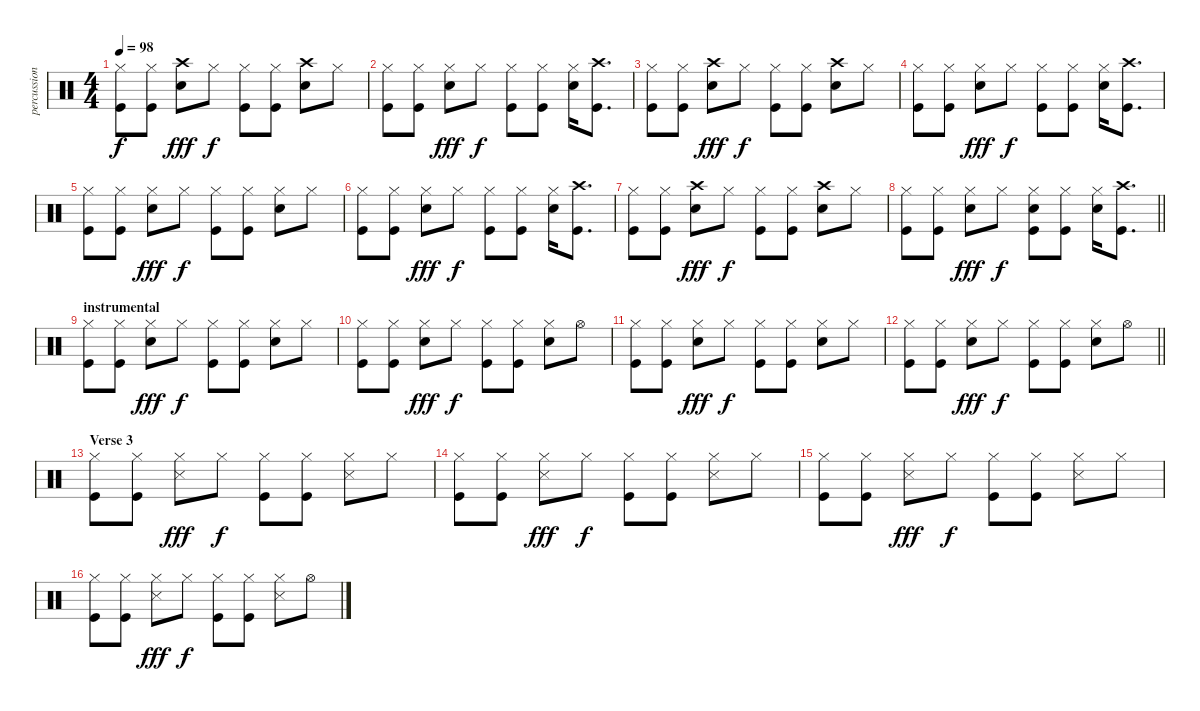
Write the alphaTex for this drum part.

\track ("percussion" "percussion") {instrument percussion}
\staff {score}
\articulation defaults
\ts (4 4)
\tempo 98
\clef neutral
\ks c
("Hi-Hat (closed)" "Kick (hit)").8{dy f} ("Hi-Hat (closed)" "Kick (hit)").8 ("Crash high (hit)" "Electric Snare (hit)").8{dy fff} "Hi-Hat (closed)".8{dy f} ("Hi-Hat (closed)" "Kick (hit)").8 ("Hi-Hat (closed)" "Kick (hit)").8 ("Crash high (hit)" "Electric Snare (hit)").8 "Hi-Hat (closed)".8 |
("Hi-Hat (closed)" "Kick (hit)").8 ("Hi-Hat (closed)" "Kick (hit)").8 ("Electric Snare (hit)" "Hi-Hat (closed)").8{dy fff} "Hi-Hat (closed)".8{dy f} ("Hi-Hat (closed)" "Kick (hit)").8 ("Hi-Hat (closed)" "Kick (hit)").8 ("Electric Snare (hit)" "Hi-Hat (closed)").16 ("Crash high (hit)" "Kick (hit)").8{d} |
("Hi-Hat (closed)" "Kick (hit)").8 ("Hi-Hat (closed)" "Kick (hit)").8 ("Crash high (hit)" "Electric Snare (hit)").8{dy fff} "Hi-Hat (closed)".8{dy f} ("Hi-Hat (closed)" "Kick (hit)").8 ("Hi-Hat (closed)" "Kick (hit)").8 ("Crash high (hit)" "Electric Snare (hit)").8 "Hi-Hat (closed)".8 |
("Hi-Hat (closed)" "Kick (hit)").8 ("Hi-Hat (closed)" "Kick (hit)").8 ("Electric Snare (hit)" "Hi-Hat (closed)").8{dy fff} "Hi-Hat (closed)".8{dy f} ("Hi-Hat (closed)" "Kick (hit)").8 ("Hi-Hat (closed)" "Kick (hit)").8 ("Electric Snare (hit)" "Hi-Hat (closed)").16 ("Crash high (hit)" "Kick (hit)").8{d} |
("Hi-Hat (closed)" "Kick (hit)").8 ("Hi-Hat (closed)" "Kick (hit)").8 ("Electric Snare (hit)" "Hi-Hat (closed)").8{dy fff} "Hi-Hat (closed)".8{dy f} ("Hi-Hat (closed)" "Kick (hit)").8 ("Hi-Hat (closed)" "Kick (hit)").8 ("Electric Snare (hit)" "Hi-Hat (closed)").8 "Hi-Hat (closed)".8 |
("Hi-Hat (closed)" "Kick (hit)").8 ("Hi-Hat (closed)" "Kick (hit)").8 ("Electric Snare (hit)" "Hi-Hat (closed)").8{dy fff} "Hi-Hat (closed)".8{dy f} ("Hi-Hat (closed)" "Kick (hit)").8 ("Hi-Hat (closed)" "Kick (hit)").8 ("Electric Snare (hit)" "Hi-Hat (closed)").16 ("Crash high (hit)" "Kick (hit)").8{d} |
("Hi-Hat (closed)" "Kick (hit)").8 ("Hi-Hat (closed)" "Kick (hit)").8 ("Crash high (hit)" "Electric Snare (hit)").8{dy fff} "Hi-Hat (closed)".8{dy f} ("Hi-Hat (closed)" "Kick (hit)").8 ("Hi-Hat (closed)" "Kick (hit)").8 ("Crash high (hit)" "Electric Snare (hit)").8 "Hi-Hat (closed)".8 |
\barLineRight lightlight
("Hi-Hat (closed)" "Kick (hit)").8 ("Hi-Hat (closed)" "Kick (hit)").8 ("Electric Snare (hit)" "Hi-Hat (closed)").8{dy fff} "Hi-Hat (closed)".8{dy f} ("Electric Snare (hit)" "Hi-Hat (closed)" "Kick (hit)").8 ("Hi-Hat (closed)" "Kick (hit)").8 ("Electric Snare (hit)" "Hi-Hat (closed)").16 ("Crash high (hit)" "Kick (hit)").8{d} |
\section ("" "instrumental")
("Hi-Hat (closed)" "Kick (hit)").8 ("Hi-Hat (closed)" "Kick (hit)").8 ("Electric Snare (hit)" "Hi-Hat (closed)").8{dy fff} "Hi-Hat (closed)".8{dy f} ("Hi-Hat (closed)" "Kick (hit)").8 ("Hi-Hat (closed)" "Kick (hit)").8 ("Electric Snare (hit)" "Hi-Hat (closed)").8 "Hi-Hat (closed)".8 |
("Hi-Hat (closed)" "Kick (hit)").8 ("Hi-Hat (closed)" "Kick (hit)").8 ("Electric Snare (hit)" "Hi-Hat (closed)").8{dy fff} "Hi-Hat (closed)".8{dy f} ("Hi-Hat (closed)" "Kick (hit)").8 ("Hi-Hat (closed)" "Kick (hit)").8 ("Electric Snare (hit)" "Hi-Hat (closed)").8 "Hi-Hat (open)".8 |
("Hi-Hat (closed)" "Kick (hit)").8 ("Hi-Hat (closed)" "Kick (hit)").8 ("Electric Snare (hit)" "Hi-Hat (closed)").8{dy fff} "Hi-Hat (closed)".8{dy f} ("Hi-Hat (closed)" "Kick (hit)").8 ("Hi-Hat (closed)" "Kick (hit)").8 ("Electric Snare (hit)" "Hi-Hat (closed)").8 "Hi-Hat (closed)".8 |
\barLineRight lightlight
("Hi-Hat (closed)" "Kick (hit)").8 ("Hi-Hat (closed)" "Kick (hit)").8 ("Electric Snare (hit)" "Hi-Hat (closed)").8{dy fff} "Hi-Hat (closed)".8{dy f} ("Hi-Hat (closed)" "Kick (hit)").8 ("Hi-Hat (closed)" "Kick (hit)").8 ("Electric Snare (hit)" "Hi-Hat (closed)").8 "Hi-Hat (open)".8 |
\section ("" "Verse 3")
("Hi-Hat (closed)" "Kick (hit)").8 ("Hi-Hat (closed)" "Kick (hit)").8 ("Snare (side stick) 3" "Hi-Hat (closed)").8{dy fff} "Hi-Hat (closed)".8{dy f} ("Hi-Hat (closed)" "Kick (hit)").8 ("Hi-Hat (closed)" "Kick (hit)").8 ("Snare (side stick) 3" "Hi-Hat (closed)").8 "Hi-Hat (closed)".8 |
("Hi-Hat (closed)" "Kick (hit)").8 ("Hi-Hat (closed)" "Kick (hit)").8 ("Snare (side stick) 3" "Hi-Hat (closed)").8{dy fff} "Hi-Hat (closed)".8{dy f} ("Hi-Hat (closed)" "Kick (hit)").8 ("Hi-Hat (closed)" "Kick (hit)").8 ("Snare (side stick) 3" "Hi-Hat (closed)").8 "Hi-Hat (closed)".8 |
("Hi-Hat (closed)" "Kick (hit)").8 ("Hi-Hat (closed)" "Kick (hit)").8 ("Snare (side stick) 3" "Hi-Hat (closed)").8{dy fff} "Hi-Hat (closed)".8{dy f} ("Hi-Hat (closed)" "Kick (hit)").8 ("Hi-Hat (closed)" "Kick (hit)").8 ("Snare (side stick) 3" "Hi-Hat (closed)").8 "Hi-Hat (closed)".8 |
("Hi-Hat (closed)" "Kick (hit)").8 ("Hi-Hat (closed)" "Kick (hit)").8 ("Snare (side stick) 3" "Hi-Hat (closed)").8{dy fff} "Hi-Hat (closed)".8{dy f} ("Hi-Hat (closed)" "Kick (hit)").8 ("Hi-Hat (closed)" "Kick (hit)").8 ("Snare (side stick) 3" "Hi-Hat (closed)").8 "Hi-Hat (open)".8
